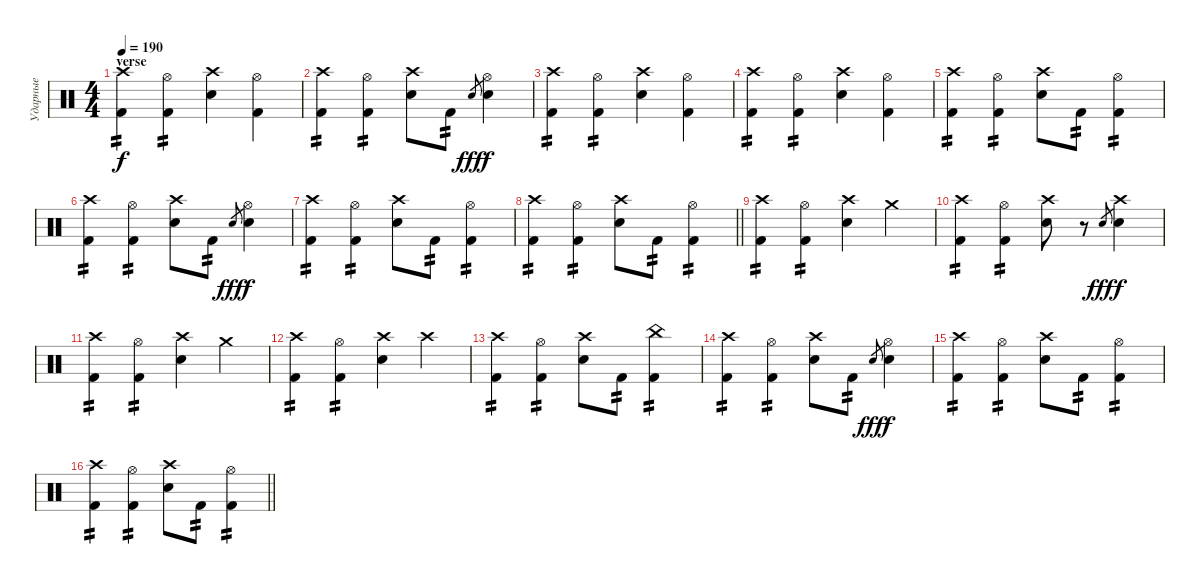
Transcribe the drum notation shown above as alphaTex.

\track ("Ударные" "Ударные") {instrument percussion}
\staff {score}
\articulation defaults
\ts (4 4)
\section ("" "verse")
\tempo 190
\clef neutral
\ks c
("Crash high (hit)" "Kick (hit) 2").4{tp 2 dy f} ("Hi-Hat (open)" "Kick (hit) 2").4{tp 2} ("Crash high (hit)" "Snare (hit) 2").4 ("Hi-Hat (open)" "Kick (hit) 2").4 |
("Crash high (hit)" "Kick (hit) 2").4{tp 2} ("Hi-Hat (open)" "Kick (hit) 2").4{tp 2} ("Crash high (hit)" "Snare (hit) 2").8 "Kick (hit) 2".8{tp 2} "Snare (hit) 2".8{gr dy fff} ("Hi-Hat (open)" "Snare (hit) 2").4{dy f} |
("Crash high (hit)" "Kick (hit) 2").4{tp 2} ("Hi-Hat (open)" "Kick (hit) 2").4{tp 2} ("Crash high (hit)" "Snare (hit) 2").4 ("Hi-Hat (open)" "Kick (hit) 2").4 |
("Crash high (hit)" "Kick (hit) 2").4{tp 2} ("Hi-Hat (open)" "Kick (hit) 2").4{tp 2} ("Crash high (hit)" "Snare (hit) 2").4 ("Hi-Hat (open)" "Kick (hit) 2").4 |
("Crash high (hit)" "Kick (hit) 2").4{tp 2} ("Hi-Hat (open)" "Kick (hit) 2").4{tp 2} ("Crash high (hit)" "Snare (hit) 2").8 "Kick (hit) 2".8{tp 2} ("Hi-Hat (open)" "Kick (hit) 2").4{tp 2} |
("Crash high (hit)" "Kick (hit) 2").4{tp 2} ("Hi-Hat (open)" "Kick (hit) 2").4{tp 2} ("Crash high (hit)" "Snare (hit) 2").8 "Kick (hit) 2".8{tp 2} "Snare (hit) 2".8{gr dy fff} ("Hi-Hat (open)" "Snare (hit) 2").4{dy f} |
("Crash high (hit)" "Kick (hit) 2").4{tp 2} ("Hi-Hat (open)" "Kick (hit) 2").4{tp 2} ("Crash high (hit)" "Snare (hit) 2").8 "Kick (hit) 2".8{tp 2} ("Hi-Hat (open)" "Kick (hit) 2").4{tp 2} |
\barLineRight lightlight
("Crash high (hit)" "Kick (hit) 2").4{tp 2} ("Hi-Hat (open)" "Kick (hit) 2").4{tp 2} ("Crash high (hit)" "Snare (hit) 2").8 "Kick (hit) 2".8{tp 2} ("Hi-Hat (open)" "Kick (hit) 2").4{tp 2} |
("Crash high (hit)" "Kick (hit) 2").4{tp 2} ("Hi-Hat (open)" "Kick (hit) 2").4{tp 2} ("Crash high (hit)" "Snare (hit) 2").4 "Crash medium (hit)".4 |
("Crash high (hit)" "Kick (hit) 2").4{tp 2} ("Hi-Hat (open)" "Kick (hit) 2").4{tp 2} ("Crash high (hit)" "Snare (hit) 2").8 r.8 "Snare (hit) 2".8{gr dy fff} ("Crash high (hit)" "Snare (hit) 2").4{dy f} |
("Crash high (hit)" "Kick (hit) 2").4{tp 2} ("Hi-Hat (open)" "Kick (hit) 2").4{tp 2} ("Crash high (hit)" "Snare (hit) 2").4 "Crash medium (hit)".4 |
("Crash high (hit)" "Kick (hit) 2").4{tp 2} ("Hi-Hat (open)" "Kick (hit) 2").4{tp 2} ("Crash high (hit)" "Snare (hit) 2").4 "Crash high (hit)".4 |
("Crash high (hit)" "Kick (hit) 2").4{tp 2} ("Hi-Hat (open)" "Kick (hit) 2").4{tp 2} ("Crash high (hit)" "Snare (hit) 2").8 "Kick (hit) 2".8{tp 2} ("China (hit)" "Kick (hit) 2").4{tp 2} |
("Crash high (hit)" "Kick (hit) 2").4{tp 2} ("Hi-Hat (open)" "Kick (hit) 2").4{tp 2} ("Crash high (hit)" "Snare (hit) 2").8 "Kick (hit) 2".8{tp 2} "Snare (hit) 2".8{gr dy fff} ("Hi-Hat (open)" "Snare (hit) 2").4{dy f} |
("Crash high (hit)" "Kick (hit) 2").4{tp 2} ("Hi-Hat (open)" "Kick (hit) 2").4{tp 2} ("Crash high (hit)" "Snare (hit) 2").8 "Kick (hit) 2".8{tp 2} ("Hi-Hat (open)" "Kick (hit) 2").4{tp 2} |
\barLineRight lightlight
("Crash high (hit)" "Kick (hit) 2").4{tp 2} ("Hi-Hat (open)" "Kick (hit) 2").4{tp 2} ("Crash high (hit)" "Snare (hit) 2").8 "Kick (hit) 2".8{tp 2} ("Hi-Hat (open)" "Kick (hit) 2").4{tp 2}
